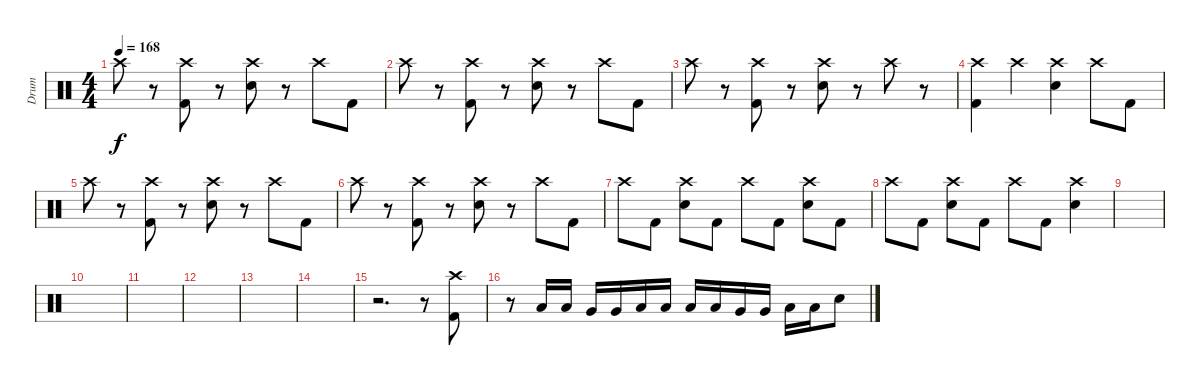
\track ("Drum" "Drum") {instrument percussion}
\staff {score}
\articulation defaults
\ts (4 4)
\tempo 168
\clef neutral
\ks c "Crash high (hit)".8{dy f}
r.8 ("Crash high (hit)" "Kick (hit) 2").8 r.8 ("Crash high (hit)" "Electric Snare (hit)").8 r.8 "Crash high (hit)".8 "Kick (hit) 2".8 |
"Crash high (hit)".8 r.8 ("Crash high (hit)" "Kick (hit) 2").8 r.8 ("Electric Snare (hit)" "Crash high (hit)").8 r.8 "Crash high (hit)".8 "Kick (hit) 2".8 |
"Crash high (hit)".8 r.8 ("Crash high (hit)" "Kick (hit) 2").8 r.8 ("Crash high (hit)" "Electric Snare (hit)").8 r.8 "Crash high (hit)".8 r.8 |
("Crash high (hit)" "Kick (hit) 2").4 "Crash high (hit)".4 ("Crash high (hit)" "Electric Snare (hit)").4 "Crash high (hit)".8 "Kick (hit) 2".8 |
"Crash high (hit)".8 r.8 ("Crash high (hit)" "Kick (hit) 2").8 r.8 ("Crash high (hit)" "Electric Snare (hit)").8 r.8 "Crash high (hit)".8 "Kick (hit) 2".8 |
"Crash high (hit)".8 r.8 ("Crash high (hit)" "Kick (hit) 2").8 r.8 ("Electric Snare (hit)" "Crash high (hit)").8 r.8 "Crash high (hit)".8 "Kick (hit) 2".8 |
"Crash high (hit)".8 "Kick (hit) 2".8 ("Crash high (hit)" "Electric Snare (hit)").8 "Kick (hit) 2".8 "Crash high (hit)".8 "Kick (hit) 2".8 ("Crash high (hit)" "Electric Snare (hit)").8 "Kick (hit) 2".8 |
"Crash high (hit)".8 "Kick (hit) 2".8 ("Crash high (hit)" "Electric Snare (hit)").8 "Kick (hit) 2".8 "Crash high (hit)".8 "Kick (hit) 2".8 ("Crash high (hit)" "Electric Snare (hit)").4 |
|
|
|
|
|
|
r.2{d} r.8 ("Crash high (hit)" "Kick (hit) 2").8 |
r.8 "Low Tom (hit)".16 "Low Tom (hit)".16 "Very Low Tom (hit)".16 "Very Low Tom (hit)".16 "Low Floor Tom (hit)".16 "Low Floor Tom (hit)".16 "Low Tom (hit)".16 "Low Tom (hit)".16 "Very Low Tom (hit)".16 "Very Low Tom (hit)".16 "Low Floor Tom (hit)".16 "Low Floor Tom (hit)".16 "Electric Snare (hit)".8
